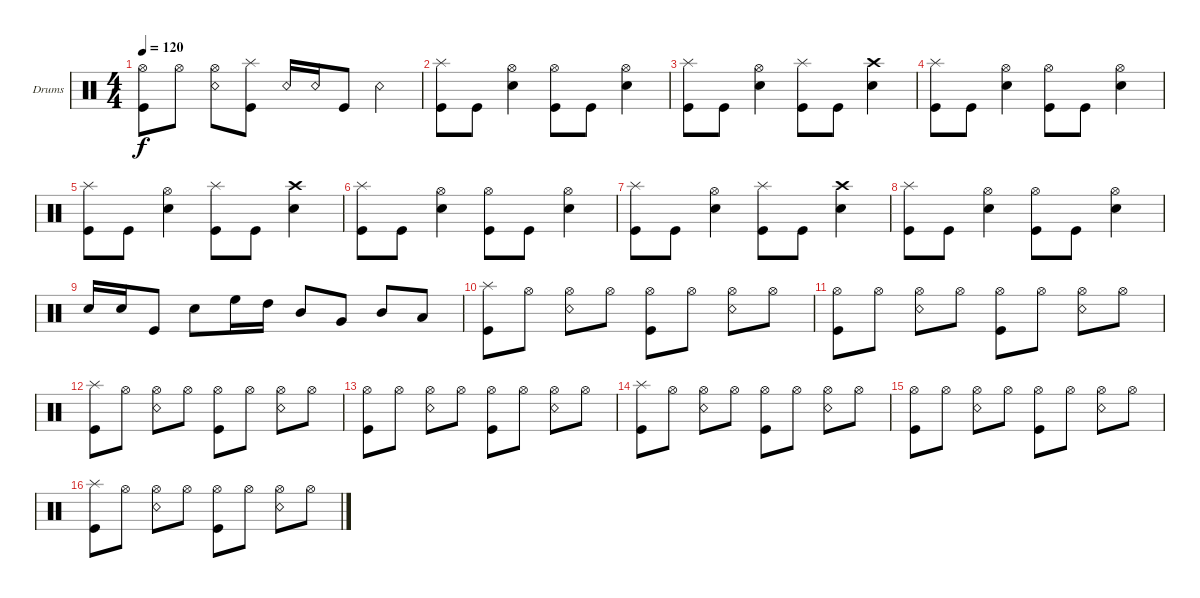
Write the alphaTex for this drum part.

\defaultSystemsLayout 4
\bracketExtendMode groupsimilarinstruments
\firstSystemTrackNameOrientation horizontal
\otherSystemsTrackNameOrientation horizontal
\track ("Drumkit" "Drums") {instrument percussion}
\staff {score}
\articulation defaults
\ts (4 4)
\tempo 120
\clef neutral
\ks c
("Kick (hit)" "Hi-Hat (open)").8{dy f} "Hi-Hat (open)".8 ("Hi-Hat (open)" "Snare (rim shot)").8 ("Kick (hit)" "Splash (hit)").8 "Snare (rim shot)".16 "Snare (rim shot)".16 "Kick (hit)".8 "Snare (rim shot)".4 |
("Kick (hit)" "Splash (hit)").8 "Kick (hit)".8 ("Snare (hit) 2" "Hi-Hat (open)").4 ("Kick (hit)" "Hi-Hat (open)").8 "Kick (hit)".8 ("Snare (hit) 2" "Hi-Hat (open)").4 |
("Kick (hit)" "Splash (hit)").8 "Kick (hit)".8 ("Snare (hit) 2" "Hi-Hat (open)").4 ("Kick (hit)" "Splash (hit)").8 "Kick (hit)".8 ("Snare (hit) 2" "Crash high (hit)").4 |
("Kick (hit)" "Splash (hit)").8 "Kick (hit)".8 ("Snare (hit) 2" "Hi-Hat (open)").4 ("Kick (hit)" "Hi-Hat (open)").8 "Kick (hit)".8 ("Snare (hit) 2" "Hi-Hat (open)").4 |
("Kick (hit)" "Splash (hit)").8 "Kick (hit)".8 ("Snare (hit) 2" "Hi-Hat (open)").4 ("Kick (hit)" "Splash (hit)").8 "Kick (hit)".8 ("Snare (hit) 2" "Crash high (hit)").4 |
("Kick (hit)" "Splash (hit)").8 "Kick (hit)".8 ("Snare (hit) 2" "Hi-Hat (open)").4 ("Kick (hit)" "Hi-Hat (open)").8 "Kick (hit)".8 ("Snare (hit) 2" "Hi-Hat (open)").4 |
("Kick (hit)" "Splash (hit)").8 "Kick (hit)".8 ("Snare (hit) 2" "Hi-Hat (open)").4 ("Kick (hit)" "Splash (hit)").8 "Kick (hit)".8 ("Snare (hit) 2" "Crash high (hit)").4 |
("Kick (hit)" "Splash (hit)").8 "Kick (hit)".8 ("Snare (hit) 2" "Hi-Hat (open)").4 ("Kick (hit)" "Hi-Hat (open)").8 "Kick (hit)".8 ("Snare (hit) 2" "Hi-Hat (open)").4 |
"Snare (hit) 2".16 "Snare (hit) 2".16 "Kick (hit)".8 "Snare (hit) 2".8 "High Floor Tom (hit)".16 "High Tom (hit)".16 "Mid Tom (hit)".8 "Very Low Tom (hit)".8 "Mid Tom (hit)".8 "Low Tom (hit)".8 |
("Kick (hit)" "Splash (hit)").8 "Hi-Hat (open)".8 ("Hi-Hat (open)" "Snare (rim shot)").8 "Hi-Hat (open)".8 ("Hi-Hat (open)" "Kick (hit)").8 "Hi-Hat (open)".8 ("Hi-Hat (open)" "Snare (rim shot)").8 "Hi-Hat (open)".8 |
("Kick (hit)" "Hi-Hat (open)").8 "Hi-Hat (open)".8 ("Hi-Hat (open)" "Snare (rim shot)").8 "Hi-Hat (open)".8 ("Hi-Hat (open)" "Kick (hit)").8 "Hi-Hat (open)".8 ("Hi-Hat (open)" "Snare (rim shot)").8 "Hi-Hat (open)".8 |
("Kick (hit)" "Splash (hit)").8 "Hi-Hat (open)".8 ("Hi-Hat (open)" "Snare (rim shot)").8 "Hi-Hat (open)".8 ("Hi-Hat (open)" "Kick (hit)").8 "Hi-Hat (open)".8 ("Hi-Hat (open)" "Snare (rim shot)").8 "Hi-Hat (open)".8 |
("Kick (hit)" "Hi-Hat (open)").8 "Hi-Hat (open)".8 ("Hi-Hat (open)" "Snare (rim shot)").8 "Hi-Hat (open)".8 ("Hi-Hat (open)" "Kick (hit)").8 "Hi-Hat (open)".8 ("Hi-Hat (open)" "Snare (rim shot)").8 "Hi-Hat (open)".8 |
("Kick (hit)" "Splash (hit)").8 "Hi-Hat (open)".8 ("Hi-Hat (open)" "Snare (rim shot)").8 "Hi-Hat (open)".8 ("Hi-Hat (open)" "Kick (hit)").8 "Hi-Hat (open)".8 ("Hi-Hat (open)" "Snare (rim shot)").8 "Hi-Hat (open)".8 |
("Kick (hit)" "Hi-Hat (open)").8 "Hi-Hat (open)".8 ("Hi-Hat (open)" "Snare (rim shot)").8 "Hi-Hat (open)".8 ("Hi-Hat (open)" "Kick (hit)").8 "Hi-Hat (open)".8 ("Hi-Hat (open)" "Snare (rim shot)").8 "Hi-Hat (open)".8 |
("Kick (hit)" "Splash (hit)").8 "Hi-Hat (open)".8 ("Hi-Hat (open)" "Snare (rim shot)").8 "Hi-Hat (open)".8 ("Hi-Hat (open)" "Kick (hit)").8 "Hi-Hat (open)".8 ("Hi-Hat (open)" "Snare (rim shot)").8 "Hi-Hat (open)".8
